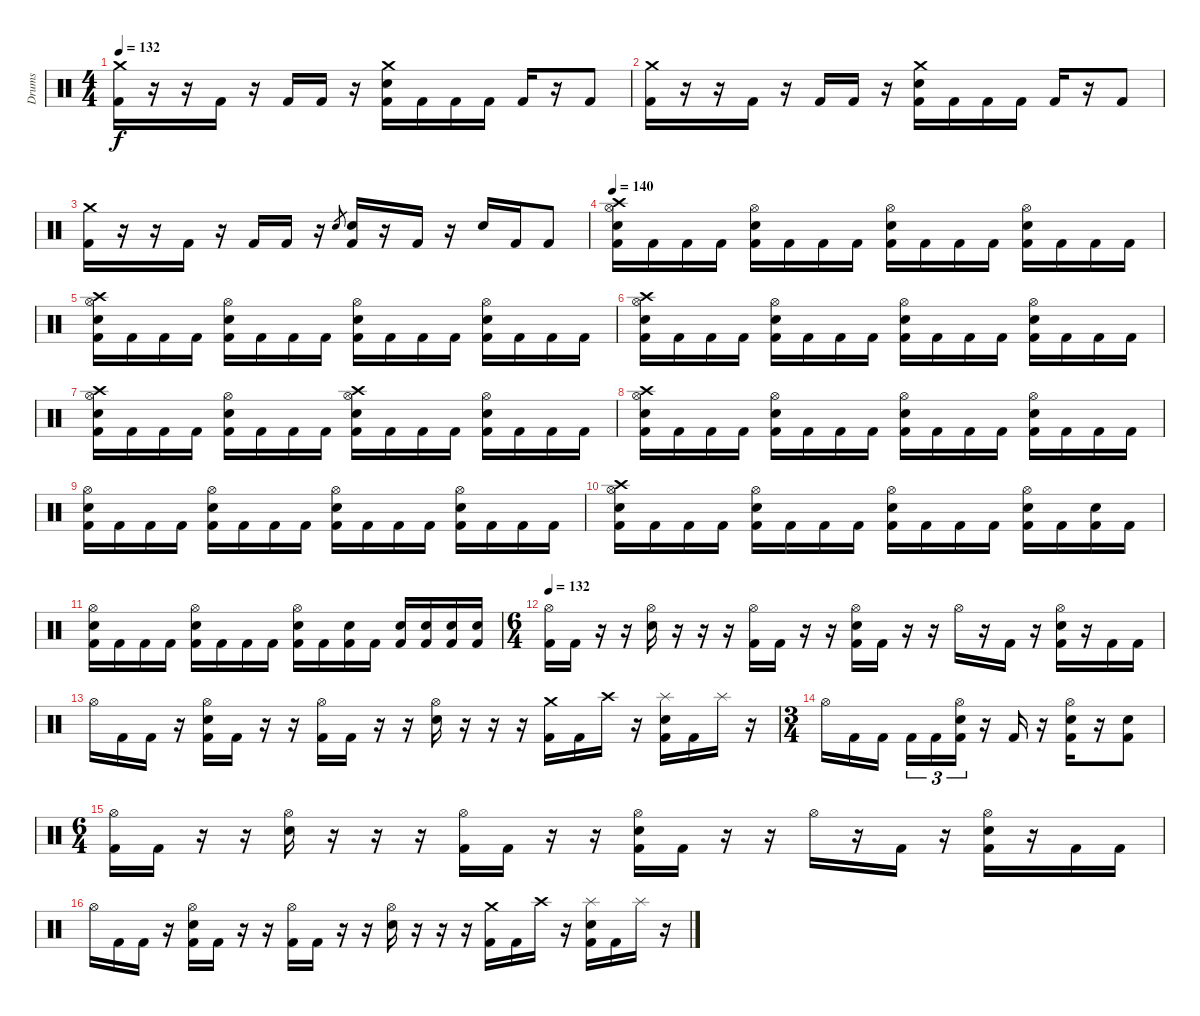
\track ("Drums" "Drums") {instrument percussion}
\staff {score}
\articulation defaults
\ts (4 4)
\tempo 132
\clef neutral
\ks c
("Crash medium (hit)" "Kick (hit) 2").16{dy f} r.16 r.16 "Kick (hit) 2".16 r.16 "Kick (hit) 2".16 "Kick (hit) 2".16 r.16 ("Crash medium (hit)" "Electric Snare (hit)" "Kick (hit) 2").16 "Kick (hit) 2".16 "Kick (hit) 2".16 "Kick (hit) 2".16 "Kick (hit) 2".16 r.16 "Kick (hit) 2".8 |
("Crash medium (hit)" "Kick (hit) 2").16 r.16 r.16 "Kick (hit) 2".16 r.16 "Kick (hit) 2".16 "Kick (hit) 2".16 r.16 ("Crash medium (hit)" "Electric Snare (hit)" "Kick (hit) 2").16 "Kick (hit) 2".16 "Kick (hit) 2".16 "Kick (hit) 2".16 "Kick (hit) 2".16 r.16 "Kick (hit) 2".8 |
("Crash medium (hit)" "Kick (hit) 2").16 r.16 r.16 "Kick (hit) 2".16 r.16 "Kick (hit) 2".16 "Kick (hit) 2".16 r.16 "Electric Snare (hit)".8{gr} ("Electric Snare (hit)" "Kick (hit) 2").16 r.16 "Kick (hit) 2".16 r.16 "Electric Snare (hit)".16 "Kick (hit) 2".16 "Kick (hit) 2".8 |
\tempo 140
("Hi-Hat (open)" "Crash high (hit)" "Electric Snare (hit)" "Kick (hit) 2").16 "Kick (hit) 2".16 "Kick (hit) 2".16 "Kick (hit) 2".16 ("Hi-Hat (open)" "Electric Snare (hit)" "Kick (hit) 2").16 "Kick (hit) 2".16 "Kick (hit) 2".16 "Kick (hit) 2".16 ("Hi-Hat (open)" "Electric Snare (hit)" "Kick (hit) 2").16 "Kick (hit) 2".16 "Kick (hit) 2".16 "Kick (hit) 2".16 ("Hi-Hat (open)" "Electric Snare (hit)" "Kick (hit) 2").16 "Kick (hit) 2".16 "Kick (hit) 2".16 "Kick (hit) 2".16 |
("Hi-Hat (open)" "Crash high (hit)" "Electric Snare (hit)" "Kick (hit) 2").16 "Kick (hit) 2".16 "Kick (hit) 2".16 "Kick (hit) 2".16 ("Hi-Hat (open)" "Electric Snare (hit)" "Kick (hit) 2").16 "Kick (hit) 2".16 "Kick (hit) 2".16 "Kick (hit) 2".16 ("Hi-Hat (open)" "Electric Snare (hit)" "Kick (hit) 2").16 "Kick (hit) 2".16 "Kick (hit) 2".16 "Kick (hit) 2".16 ("Hi-Hat (open)" "Electric Snare (hit)" "Kick (hit) 2").16 "Kick (hit) 2".16 "Kick (hit) 2".16 "Kick (hit) 2".16 |
("Hi-Hat (open)" "Crash high (hit)" "Electric Snare (hit)" "Kick (hit) 2").16 "Kick (hit) 2".16 "Kick (hit) 2".16 "Kick (hit) 2".16 ("Hi-Hat (open)" "Electric Snare (hit)" "Kick (hit) 2").16 "Kick (hit) 2".16 "Kick (hit) 2".16 "Kick (hit) 2".16 ("Hi-Hat (open)" "Electric Snare (hit)" "Kick (hit) 2").16 "Kick (hit) 2".16 "Kick (hit) 2".16 "Kick (hit) 2".16 ("Hi-Hat (open)" "Electric Snare (hit)" "Kick (hit) 2").16 "Kick (hit) 2".16 "Kick (hit) 2".16 "Kick (hit) 2".16 |
("Hi-Hat (open)" "Crash high (hit)" "Electric Snare (hit)" "Kick (hit) 2").16 "Kick (hit) 2".16 "Kick (hit) 2".16 "Kick (hit) 2".16 ("Hi-Hat (open)" "Electric Snare (hit)" "Kick (hit) 2").16 "Kick (hit) 2".16 "Kick (hit) 2".16 "Kick (hit) 2".16 ("Hi-Hat (open)" "Crash high (hit)" "Electric Snare (hit)" "Kick (hit) 2").16 "Kick (hit) 2".16 "Kick (hit) 2".16 "Kick (hit) 2".16 ("Hi-Hat (open)" "Electric Snare (hit)" "Kick (hit) 2").16 "Kick (hit) 2".16 "Kick (hit) 2".16 "Kick (hit) 2".16 |
("Hi-Hat (open)" "Crash high (hit)" "Electric Snare (hit)" "Kick (hit) 2").16 "Kick (hit) 2".16 "Kick (hit) 2".16 "Kick (hit) 2".16 ("Hi-Hat (open)" "Electric Snare (hit)" "Kick (hit) 2").16 "Kick (hit) 2".16 "Kick (hit) 2".16 "Kick (hit) 2".16 ("Hi-Hat (open)" "Electric Snare (hit)" "Kick (hit) 2").16 "Kick (hit) 2".16 "Kick (hit) 2".16 "Kick (hit) 2".16 ("Hi-Hat (open)" "Electric Snare (hit)" "Kick (hit) 2").16 "Kick (hit) 2".16 "Kick (hit) 2".16 "Kick (hit) 2".16 |
("Hi-Hat (open)" "Electric Snare (hit)" "Kick (hit) 2").16 "Kick (hit) 2".16 "Kick (hit) 2".16 "Kick (hit) 2".16 ("Hi-Hat (open)" "Electric Snare (hit)" "Kick (hit) 2").16 "Kick (hit) 2".16 "Kick (hit) 2".16 "Kick (hit) 2".16 ("Hi-Hat (open)" "Electric Snare (hit)" "Kick (hit) 2").16 "Kick (hit) 2".16 "Kick (hit) 2".16 "Kick (hit) 2".16 ("Hi-Hat (open)" "Electric Snare (hit)" "Kick (hit) 2").16 "Kick (hit) 2".16 "Kick (hit) 2".16 "Kick (hit) 2".16 |
("Hi-Hat (open)" "Crash high (hit)" "Electric Snare (hit)" "Kick (hit) 2").16 "Kick (hit) 2".16 "Kick (hit) 2".16 "Kick (hit) 2".16 ("Hi-Hat (open)" "Electric Snare (hit)" "Kick (hit) 2").16 "Kick (hit) 2".16 "Kick (hit) 2".16 "Kick (hit) 2".16 ("Hi-Hat (open)" "Electric Snare (hit)" "Kick (hit) 2").16 "Kick (hit) 2".16 "Kick (hit) 2".16 "Kick (hit) 2".16 ("Hi-Hat (open)" "Electric Snare (hit)" "Kick (hit) 2").16 "Kick (hit) 2".16 ("Electric Snare (hit)" "Kick (hit) 2").16 "Kick (hit) 2".16 |
("Hi-Hat (open)" "Electric Snare (hit)" "Kick (hit) 2").16 "Kick (hit) 2".16 "Kick (hit) 2".16 "Kick (hit) 2".16 ("Hi-Hat (open)" "Electric Snare (hit)" "Kick (hit) 2").16 "Kick (hit) 2".16 "Kick (hit) 2".16 "Kick (hit) 2".16 ("Hi-Hat (open)" "Electric Snare (hit)" "Kick (hit) 2").16 "Kick (hit) 2".16 ("Electric Snare (hit)" "Kick (hit) 2").16 "Kick (hit) 2".16 ("Electric Snare (hit)" "Kick (hit) 2").16 ("Electric Snare (hit)" "Kick (hit) 2").16 ("Electric Snare (hit)" "Kick (hit) 2").16 ("Electric Snare (hit)" "Kick (hit) 2").16 |
\ts (6 4)
\tempo 132
("Hi-Hat (open)" "Kick (hit) 2").16 "Kick (hit) 2".16 r.16 r.16 ("Hi-Hat (open)" "Electric Snare (hit)").16 r.16 r.16 r.16 ("Hi-Hat (open)" "Kick (hit) 2").16 "Kick (hit) 2".16 r.16 r.16 ("Hi-Hat (open)" "Electric Snare (hit)" "Kick (hit) 2").16 "Kick (hit) 2".16 r.16 r.16 "Hi-Hat (open)".16 r.16 "Kick (hit) 2".16 r.16 ("Hi-Hat (open)" "Electric Snare (hit)" "Kick (hit) 2").16 r.16 "Kick (hit) 2".16 "Kick (hit) 2".16 |
"Hi-Hat (open)".16 "Kick (hit) 2".16 "Kick (hit) 2".16 r.16 ("Hi-Hat (open)" "Electric Snare (hit)" "Kick (hit) 2").16 "Kick (hit) 2".16 r.16 r.16 ("Hi-Hat (open)" "Kick (hit) 2").16 "Kick (hit) 2".16 r.16 r.16 ("Hi-Hat (open)" "Electric Snare (hit)").16 r.16 r.16 r.16 ("Crash medium (hit)" "Kick (hit) 2").16 "Kick (hit) 2".16 "Crash high (hit)".16 r.16 ("Splash (hit)" "Electric Snare (hit)" "Kick (hit) 2").16 "Kick (hit) 2".16 "Splash (hit)".16 r.16 |
\ts (3 4)
"Hi-Hat (open)".16 "Kick (hit) 2".16 "Kick (hit) 2".16{beam splitsecondary} "Kick (hit) 2".16{tu (3 2)} "Kick (hit) 2".16{tu (3 2)} ("Hi-Hat (open)" "Electric Snare (hit)" "Kick (hit) 2").16{tu (3 2)} r.16 "Kick (hit) 2".16 r.16 ("Hi-Hat (open)" "Electric Snare (hit)" "Kick (hit) 2").16 r.16 ("Electric Snare (hit)" "Kick (hit) 2").8 |
\ts (6 4)
("Hi-Hat (open)" "Kick (hit) 2").16 "Kick (hit) 2".16 r.16 r.16 ("Hi-Hat (open)" "Electric Snare (hit)").16 r.16 r.16 r.16 ("Hi-Hat (open)" "Kick (hit) 2").16 "Kick (hit) 2".16 r.16 r.16 ("Hi-Hat (open)" "Electric Snare (hit)" "Kick (hit) 2").16 "Kick (hit) 2".16 r.16 r.16 "Hi-Hat (open)".16 r.16 "Kick (hit) 2".16 r.16 ("Hi-Hat (open)" "Electric Snare (hit)" "Kick (hit) 2").16 r.16 "Kick (hit) 2".16 "Kick (hit) 2".16 |
"Hi-Hat (open)".16 "Kick (hit) 2".16 "Kick (hit) 2".16 r.16 ("Hi-Hat (open)" "Electric Snare (hit)" "Kick (hit) 2").16 "Kick (hit) 2".16 r.16 r.16 ("Hi-Hat (open)" "Kick (hit) 2").16 "Kick (hit) 2".16 r.16 r.16 ("Hi-Hat (open)" "Electric Snare (hit)").16 r.16 r.16 r.16 ("Crash medium (hit)" "Kick (hit) 2").16 "Kick (hit) 2".16 "Crash high (hit)".16 r.16 ("Splash (hit)" "Electric Snare (hit)" "Kick (hit) 2").16 "Kick (hit) 2".16 "Splash (hit)".16 r.16
